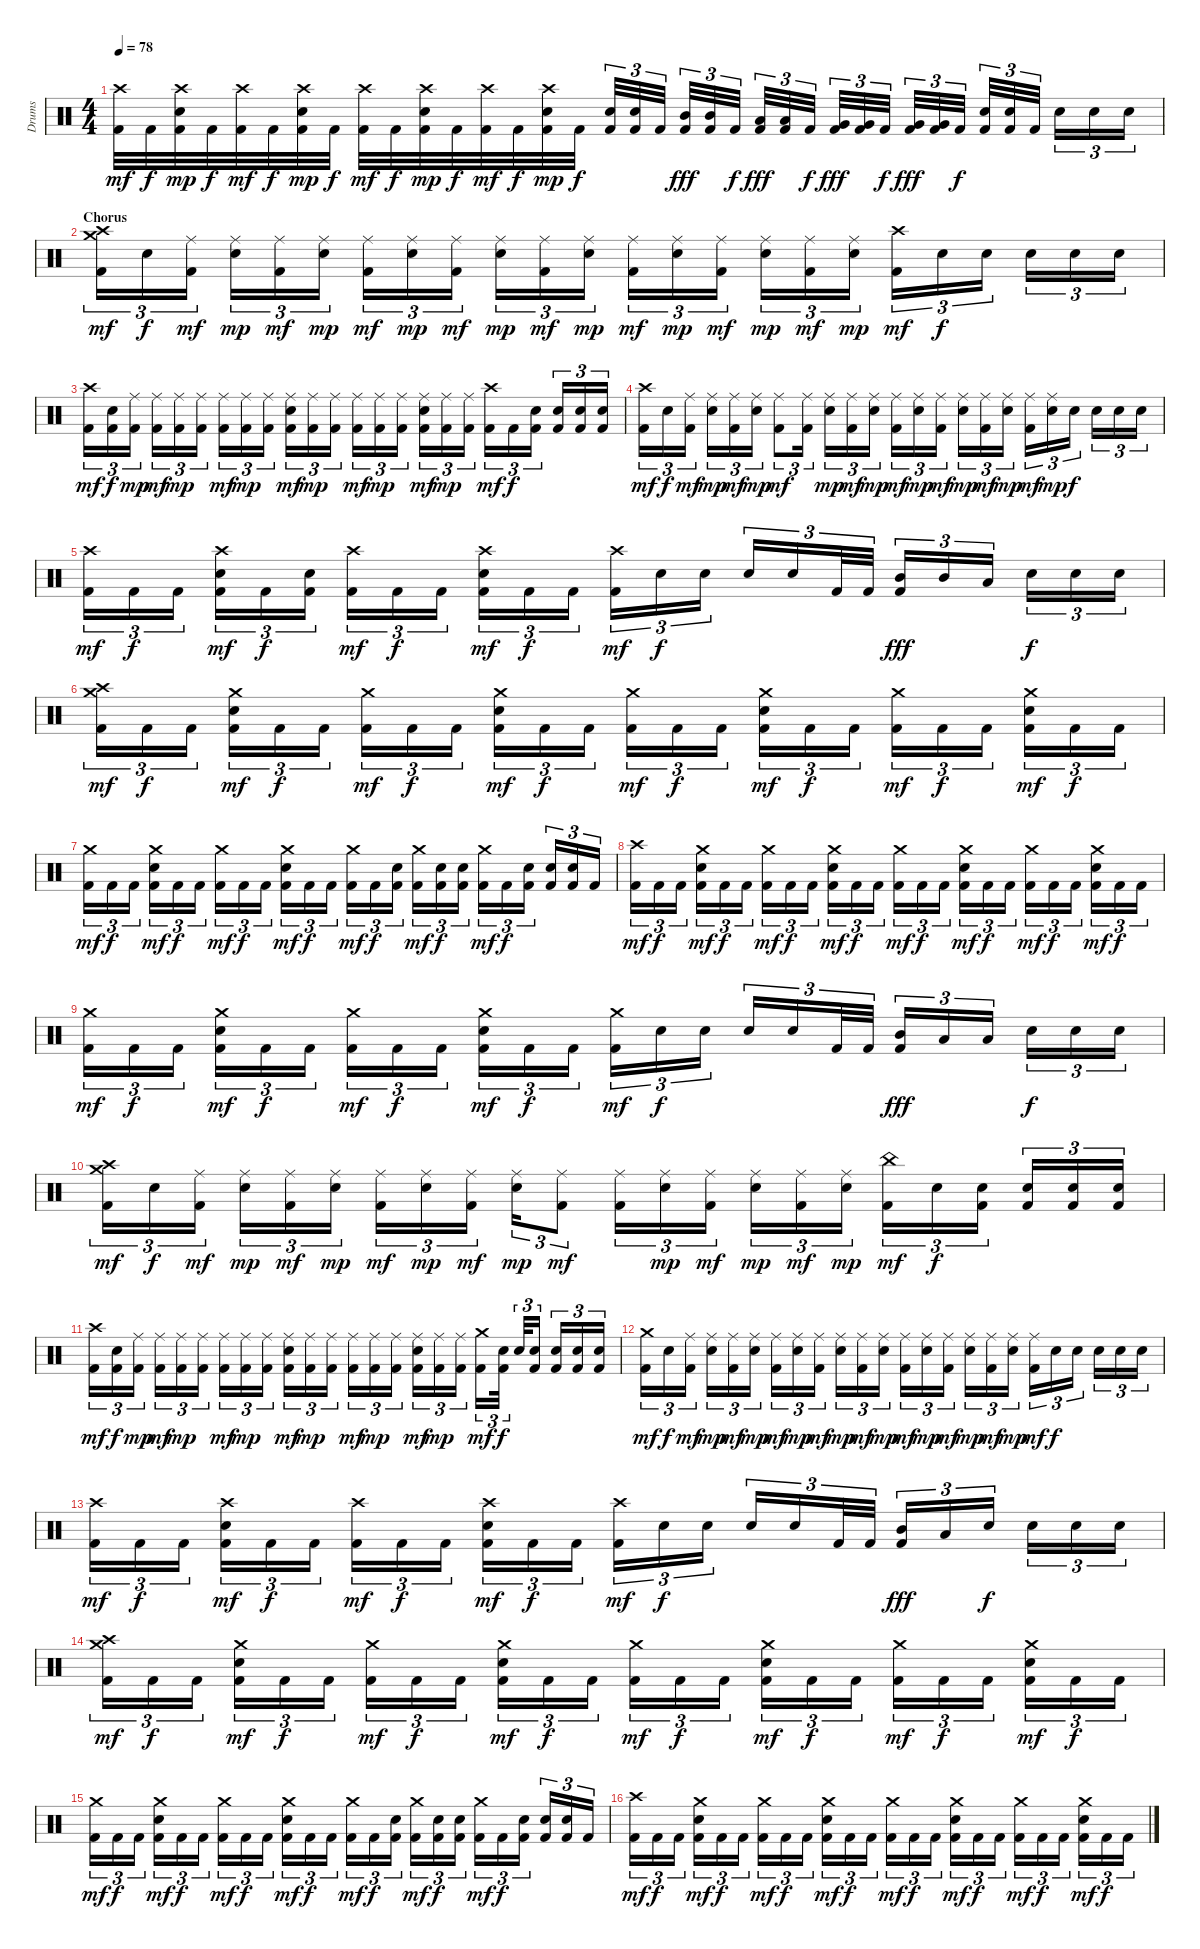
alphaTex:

\track ("Drums" "Drums") {instrument percussion}
\staff {score}
\articulation defaults
\ts (4 4)
\tempo 78
\clef neutral
\ks c
("Crash high (hit)" "Kick (hit) 2").32{dy mf} "Kick (hit) 2".32{dy f} ("Crash high (hit)" "Electric Snare (hit)" "Kick (hit) 2").32{dy mp} "Kick (hit) 2".32{dy f} ("Crash high (hit)" "Kick (hit) 2").32{dy mf} "Kick (hit) 2".32{dy f} ("Crash high (hit)" "Electric Snare (hit)" "Kick (hit) 2").32{dy mp} "Kick (hit) 2".32{dy f} ("Crash high (hit)" "Kick (hit) 2").32{dy mf} "Kick (hit) 2".32{dy f} ("Crash high (hit)" "Electric Snare (hit)" "Kick (hit) 2").32{dy mp} "Kick (hit) 2".32{dy f} ("Crash high (hit)" "Kick (hit) 2").32{dy mf} "Kick (hit) 2".32{dy f} ("Crash high (hit)" "Electric Snare (hit)" "Kick (hit) 2").32{dy mp} "Kick (hit) 2".32{dy f} ("Electric Snare (hit)" "Kick (hit) 2").32{tu (3 2)} ("Electric Snare (hit)" "Kick (hit) 2").32{tu (3 2)} "Kick (hit) 2".32{tu (3 2)} ("Mid Tom (hit)" "Kick (hit) 2").32{tu (3 2) dy fff} ("Mid Tom (hit)" "Kick (hit) 2").32{tu (3 2)} "Kick (hit) 2".32{tu (3 2) dy f} ("Low Tom (hit)" "Kick (hit) 2").32{tu (3 2) dy fff} ("Low Tom (hit)" "Kick (hit) 2").32{tu (3 2)} "Kick (hit) 2".32{tu (3 2) dy f} ("Very Low Tom (hit)" "Kick (hit) 2").32{tu (3 2) dy fff} ("Very Low Tom (hit)" "Kick (hit) 2").32{tu (3 2)} "Kick (hit) 2".32{tu (3 2) dy f} ("Very Low Tom (hit)" "Kick (hit) 2").32{tu (3 2) dy fff} ("Very Low Tom (hit)" "Kick (hit) 2").32{tu (3 2)} "Kick (hit) 2".32{tu (3 2) dy f} ("Electric Snare (hit)" "Kick (hit) 2").32{tu (3 2)} ("Electric Snare (hit)" "Kick (hit) 2").32{tu (3 2)} "Kick (hit) 2".32{tu (3 2)} "Electric Snare (hit)".16{tu (3 2)} "Electric Snare (hit)".16{tu (3 2)} "Electric Snare (hit)".16{tu (3 2)} |
\section ("" "Chorus")
("Crash high (hit)" "Crash medium (hit)" "Kick (hit) 2").16{tu (3 2) dy mf} "Electric Snare (hit)".16{tu (3 2) dy f} ("Ride (middle)" "Kick (hit) 2").16{tu (3 2) dy mf} ("Ride (middle)" "Electric Snare (hit)").16{tu (3 2) dy mp} ("Ride (middle)" "Kick (hit) 2").16{tu (3 2) dy mf} ("Ride (middle)" "Electric Snare (hit)").16{tu (3 2) dy mp} ("Ride (middle)" "Kick (hit) 2").16{tu (3 2) dy mf} ("Ride (middle)" "Electric Snare (hit)").16{tu (3 2) dy mp} ("Ride (middle)" "Kick (hit) 2").16{tu (3 2) dy mf} ("Ride (middle)" "Electric Snare (hit)").16{tu (3 2) dy mp} ("Ride (middle)" "Kick (hit) 2").16{tu (3 2) dy mf} ("Ride (middle)" "Electric Snare (hit)").16{tu (3 2) dy mp} ("Ride (middle)" "Kick (hit) 2").16{tu (3 2) dy mf} ("Ride (middle)" "Electric Snare (hit)").16{tu (3 2) dy mp} ("Ride (middle)" "Kick (hit) 2").16{tu (3 2) dy mf} ("Ride (middle)" "Electric Snare (hit)").16{tu (3 2) dy mp} ("Ride (middle)" "Kick (hit) 2").16{tu (3 2) dy mf} ("Ride (middle)" "Electric Snare (hit)").16{tu (3 2) dy mp} ("Crash high (hit)" "Kick (hit) 2").16{tu (3 2) dy mf} "Electric Snare (hit)".16{tu (3 2) dy f} "Electric Snare (hit)".16{tu (3 2)} "Electric Snare (hit)".16{tu (3 2)} "Electric Snare (hit)".16{tu (3 2)} "Electric Snare (hit)".16{tu (3 2)} |
("Crash high (hit)" "Kick (hit) 2").16{tu (3 2) dy mf} ("Electric Snare (hit)" "Kick (hit) 2").16{tu (3 2) dy f} ("Ride (middle)" "Kick (hit) 2").16{tu (3 2) dy mp} ("Ride (middle)" "Kick (hit) 2").16{tu (3 2) dy mf} ("Ride (middle)" "Kick (hit) 2").16{tu (3 2) dy mp} ("Ride (middle)" "Kick (hit) 2").16{tu (3 2)} ("Ride (middle)" "Kick (hit) 2").16{tu (3 2) dy mf} ("Ride (middle)" "Kick (hit) 2").16{tu (3 2) dy mp} ("Ride (middle)" "Kick (hit) 2").16{tu (3 2)} ("Ride (middle)" "Electric Snare (hit)" "Kick (hit) 2").16{tu (3 2) dy mf} ("Ride (middle)" "Kick (hit) 2").16{tu (3 2) dy mp} ("Ride (middle)" "Kick (hit) 2").16{tu (3 2)} ("Ride (middle)" "Kick (hit) 2").16{tu (3 2) dy mf} ("Ride (middle)" "Kick (hit) 2").16{tu (3 2) dy mp} ("Ride (middle)" "Kick (hit) 2").16{tu (3 2)} ("Ride (middle)" "Electric Snare (hit)" "Kick (hit) 2").16{tu (3 2) dy mf} ("Ride (middle)" "Kick (hit) 2").16{tu (3 2) dy mp} ("Ride (middle)" "Kick (hit) 2").16{tu (3 2)} ("Crash high (hit)" "Kick (hit) 2").16{tu (3 2) dy mf} "Kick (hit) 2".16{tu (3 2) dy f} ("Electric Snare (hit)" "Kick (hit) 2").16{tu (3 2)} ("Electric Snare (hit)" "Kick (hit) 2").16{tu (3 2)} ("Electric Snare (hit)" "Kick (hit) 2").16{tu (3 2)} ("Electric Snare (hit)" "Kick (hit) 2").16{tu (3 2)} |
("Crash high (hit)" "Kick (hit) 2").16{tu (3 2) dy mf} "Electric Snare (hit)".16{tu (3 2) dy f} ("Ride (middle)" "Kick (hit) 2").16{tu (3 2) dy mf} ("Ride (middle)" "Electric Snare (hit)").16{tu (3 2) dy mp} ("Ride (middle)" "Kick (hit) 2").16{tu (3 2) dy mf} ("Ride (middle)" "Electric Snare (hit)").16{tu (3 2) dy mp} ("Ride (middle)" "Kick (hit) 2").8{tu (3 2) dy mf} ("Ride (middle)" "Kick (hit) 2").16{tu (3 2)} ("Ride (middle)" "Electric Snare (hit)").16{tu (3 2) dy mp} ("Ride (middle)" "Kick (hit) 2").16{tu (3 2) dy mf} ("Ride (middle)" "Electric Snare (hit)").16{tu (3 2) dy mp} ("Ride (middle)" "Kick (hit) 2").16{tu (3 2) dy mf} ("Ride (middle)" "Electric Snare (hit)").16{tu (3 2) dy mp} ("Ride (middle)" "Kick (hit) 2").16{tu (3 2) dy mf} ("Ride (middle)" "Electric Snare (hit)").16{tu (3 2) dy mp} ("Ride (middle)" "Kick (hit) 2").16{tu (3 2) dy mf} ("Ride (middle)" "Electric Snare (hit)").16{tu (3 2) dy mp} ("Ride (middle)" "Kick (hit) 2").16{tu (3 2) dy mf} ("Ride (middle)" "Electric Snare (hit)").16{tu (3 2) dy mp} "Electric Snare (hit)".16{tu (3 2) dy f} "Electric Snare (hit)".16{tu (3 2)} "Electric Snare (hit)".16{tu (3 2)} "Electric Snare (hit)".16{tu (3 2)} |
("Crash high (hit)" "Kick (hit) 2").16{tu (3 2) dy mf} "Kick (hit) 2".16{tu (3 2) dy f} "Kick (hit) 2".16{tu (3 2)} ("Crash high (hit)" "Electric Snare (hit)" "Kick (hit) 2").16{tu (3 2) dy mf} "Kick (hit) 2".16{tu (3 2) dy f} ("Electric Snare (hit)" "Kick (hit) 2").16{tu (3 2)} ("Crash high (hit)" "Kick (hit) 2").16{tu (3 2) dy mf} "Kick (hit) 2".16{tu (3 2) dy f} "Kick (hit) 2".16{tu (3 2)} ("Crash high (hit)" "Electric Snare (hit)" "Kick (hit) 2").16{tu (3 2) dy mf} "Kick (hit) 2".16{tu (3 2) dy f} "Kick (hit) 2".16{tu (3 2)} ("Crash high (hit)" "Kick (hit) 2").16{tu (3 2) dy mf} "Electric Snare (hit)".16{tu (3 2) dy f} "Electric Snare (hit)".16{tu (3 2)} "Electric Snare (hit)".16{tu (3 2)} "Electric Snare (hit)".16{tu (3 2)} "Kick (hit) 2".32{tu (3 2)} "Kick (hit) 2".32{tu (3 2)} ("Mid Tom (hit)" "Kick (hit) 2").16{tu (3 2) dy fff} "Mid Tom (hit)".16{tu (3 2)} "Low Tom (hit)".16{tu (3 2)} "Electric Snare (hit)".16{tu (3 2) dy f} "Electric Snare (hit)".16{tu (3 2)} "Electric Snare (hit)".16{tu (3 2)} |
("Crash medium (hit)" "Crash high (hit)" "Kick (hit) 2").16{tu (3 2) dy mf} "Kick (hit) 2".16{tu (3 2) dy f} "Kick (hit) 2".16{tu (3 2)} ("Crash medium (hit)" "Electric Snare (hit)" "Kick (hit) 2").16{tu (3 2) dy mf} "Kick (hit) 2".16{tu (3 2) dy f} "Kick (hit) 2".16{tu (3 2)} ("Crash medium (hit)" "Kick (hit) 2").16{tu (3 2) dy mf} "Kick (hit) 2".16{tu (3 2) dy f} "Kick (hit) 2".16{tu (3 2)} ("Crash medium (hit)" "Electric Snare (hit)" "Kick (hit) 2").16{tu (3 2) dy mf} "Kick (hit) 2".16{tu (3 2) dy f} "Kick (hit) 2".16{tu (3 2)} ("Crash medium (hit)" "Kick (hit) 2").16{tu (3 2) dy mf} "Kick (hit) 2".16{tu (3 2) dy f} "Kick (hit) 2".16{tu (3 2)} ("Crash medium (hit)" "Electric Snare (hit)" "Kick (hit) 2").16{tu (3 2) dy mf} "Kick (hit) 2".16{tu (3 2) dy f} "Kick (hit) 2".16{tu (3 2)} ("Crash medium (hit)" "Kick (hit) 2").16{tu (3 2) dy mf} "Kick (hit) 2".16{tu (3 2) dy f} "Kick (hit) 2".16{tu (3 2)} ("Crash medium (hit)" "Electric Snare (hit)" "Kick (hit) 2").16{tu (3 2) dy mf} "Kick (hit) 2".16{tu (3 2) dy f} "Kick (hit) 2".16{tu (3 2)} |
("Crash medium (hit)" "Kick (hit) 2").16{tu (3 2) dy mf} "Kick (hit) 2".16{tu (3 2) dy f} "Kick (hit) 2".16{tu (3 2)} ("Crash medium (hit)" "Electric Snare (hit)" "Kick (hit) 2").16{tu (3 2) dy mf} "Kick (hit) 2".16{tu (3 2) dy f} "Kick (hit) 2".16{tu (3 2)} ("Crash medium (hit)" "Kick (hit) 2").16{tu (3 2) dy mf} "Kick (hit) 2".16{tu (3 2) dy f} "Kick (hit) 2".16{tu (3 2)} ("Crash medium (hit)" "Electric Snare (hit)" "Kick (hit) 2").16{tu (3 2) dy mf} "Kick (hit) 2".16{tu (3 2) dy f} "Kick (hit) 2".16{tu (3 2)} ("Crash medium (hit)" "Kick (hit) 2").16{tu (3 2) dy mf} "Kick (hit) 2".16{tu (3 2) dy f} ("Electric Snare (hit)" "Kick (hit) 2").16{tu (3 2)} ("Crash medium (hit)" "Kick (hit) 2").16{tu (3 2) dy mf} ("Electric Snare (hit)" "Kick (hit) 2").16{tu (3 2) dy f} ("Electric Snare (hit)" "Kick (hit) 2").16{tu (3 2)} ("Crash medium (hit)" "Kick (hit) 2").16{tu (3 2) dy mf} "Kick (hit) 2".16{tu (3 2) dy f} ("Electric Snare (hit)" "Kick (hit) 2").16{tu (3 2)} ("Electric Snare (hit)" "Kick (hit) 2").16{tu (3 2)} ("Electric Snare (hit)" "Kick (hit) 2").16{tu (3 2)} "Kick (hit) 2".16{tu (3 2)} |
("Crash high (hit)" "Kick (hit) 2").16{tu (3 2) dy mf} "Kick (hit) 2".16{tu (3 2) dy f} "Kick (hit) 2".16{tu (3 2)} ("Crash medium (hit)" "Electric Snare (hit)" "Kick (hit) 2").16{tu (3 2) dy mf} "Kick (hit) 2".16{tu (3 2) dy f} "Kick (hit) 2".16{tu (3 2)} ("Crash medium (hit)" "Kick (hit) 2").16{tu (3 2) dy mf} "Kick (hit) 2".16{tu (3 2) dy f} "Kick (hit) 2".16{tu (3 2)} ("Crash medium (hit)" "Electric Snare (hit)" "Kick (hit) 2").16{tu (3 2) dy mf} "Kick (hit) 2".16{tu (3 2) dy f} "Kick (hit) 2".16{tu (3 2)} ("Crash medium (hit)" "Kick (hit) 2").16{tu (3 2) dy mf} "Kick (hit) 2".16{tu (3 2) dy f} "Kick (hit) 2".16{tu (3 2)} ("Crash medium (hit)" "Electric Snare (hit)" "Kick (hit) 2").16{tu (3 2) dy mf} "Kick (hit) 2".16{tu (3 2) dy f} "Kick (hit) 2".16{tu (3 2)} ("Crash medium (hit)" "Kick (hit) 2").16{tu (3 2) dy mf} "Kick (hit) 2".16{tu (3 2) dy f} "Kick (hit) 2".16{tu (3 2)} ("Crash medium (hit)" "Electric Snare (hit)" "Kick (hit) 2").16{tu (3 2) dy mf} "Kick (hit) 2".16{tu (3 2) dy f} "Kick (hit) 2".16{tu (3 2)} |
("Crash medium (hit)" "Kick (hit) 2").16{tu (3 2) dy mf} "Kick (hit) 2".16{tu (3 2) dy f} "Kick (hit) 2".16{tu (3 2)} ("Crash medium (hit)" "Electric Snare (hit)" "Kick (hit) 2").16{tu (3 2) dy mf} "Kick (hit) 2".16{tu (3 2) dy f} "Kick (hit) 2".16{tu (3 2)} ("Crash medium (hit)" "Kick (hit) 2").16{tu (3 2) dy mf} "Kick (hit) 2".16{tu (3 2) dy f} "Kick (hit) 2".16{tu (3 2)} ("Crash medium (hit)" "Electric Snare (hit)" "Kick (hit) 2").16{tu (3 2) dy mf} "Kick (hit) 2".16{tu (3 2) dy f} "Kick (hit) 2".16{tu (3 2)} ("Crash medium (hit)" "Kick (hit) 2").16{tu (3 2) dy mf} "Electric Snare (hit)".16{tu (3 2) dy f} "Electric Snare (hit)".16{tu (3 2)} "Electric Snare (hit)".16{tu (3 2)} "Electric Snare (hit)".16{tu (3 2)} "Kick (hit) 2".32{tu (3 2)} "Kick (hit) 2".32{tu (3 2)} ("Mid Tom (hit)" "Kick (hit) 2").16{tu (3 2) dy fff} "Low Tom (hit)".16{tu (3 2)} "Low Tom (hit)".16{tu (3 2)} "Electric Snare (hit)".16{tu (3 2) dy f} "Electric Snare (hit)".16{tu (3 2)} "Electric Snare (hit)".16{tu (3 2)} |
("Crash high (hit)" "Crash medium (hit)" "Kick (hit) 2").16{tu (3 2) dy mf} "Electric Snare (hit)".16{tu (3 2) dy f} ("Ride (middle)" "Kick (hit) 2").16{tu (3 2) dy mf} ("Ride (middle)" "Electric Snare (hit)").16{tu (3 2) dy mp} ("Ride (middle)" "Kick (hit) 2").16{tu (3 2) dy mf} ("Ride (middle)" "Electric Snare (hit)").16{tu (3 2) dy mp} ("Ride (middle)" "Kick (hit) 2").16{tu (3 2) dy mf} ("Ride (middle)" "Electric Snare (hit)").16{tu (3 2) dy mp} ("Ride (middle)" "Kick (hit) 2").16{tu (3 2) dy mf} ("Ride (middle)" "Electric Snare (hit)").16{tu (3 2) dy mp} ("Ride (middle)" "Kick (hit) 2").8{tu (3 2) dy mf} ("Ride (middle)" "Kick (hit) 2").16{tu (3 2)} ("Ride (middle)" "Electric Snare (hit)").16{tu (3 2) dy mp} ("Ride (middle)" "Kick (hit) 2").16{tu (3 2) dy mf} ("Ride (middle)" "Electric Snare (hit)").16{tu (3 2) dy mp} ("Ride (middle)" "Kick (hit) 2").16{tu (3 2) dy mf} ("Ride (middle)" "Electric Snare (hit)").16{tu (3 2) dy mp} ("China (hit)" "Kick (hit) 2").16{tu (3 2) dy mf} "Electric Snare (hit)".16{tu (3 2) dy f} ("Electric Snare (hit)" "Kick (hit) 2").16{tu (3 2)} ("Electric Snare (hit)" "Kick (hit) 2").16{tu (3 2)} ("Electric Snare (hit)" "Kick (hit) 2").16{tu (3 2)} ("Electric Snare (hit)" "Kick (hit) 2").16{tu (3 2)} |
("Crash high (hit)" "Kick (hit) 2").16{tu (3 2) dy mf} ("Electric Snare (hit)" "Kick (hit) 2").16{tu (3 2) dy f} ("Ride (middle)" "Kick (hit) 2").16{tu (3 2) dy mp} ("Ride (middle)" "Kick (hit) 2").16{tu (3 2) dy mf} ("Ride (middle)" "Kick (hit) 2").16{tu (3 2) dy mp} ("Ride (middle)" "Kick (hit) 2").16{tu (3 2)} ("Ride (middle)" "Kick (hit) 2").16{tu (3 2) dy mf} ("Ride (middle)" "Kick (hit) 2").16{tu (3 2) dy mp} ("Ride (middle)" "Kick (hit) 2").16{tu (3 2)} ("Ride (middle)" "Electric Snare (hit)" "Kick (hit) 2").16{tu (3 2) dy mf} ("Ride (middle)" "Kick (hit) 2").16{tu (3 2) dy mp} ("Ride (middle)" "Kick (hit) 2").16{tu (3 2)} ("Ride (middle)" "Kick (hit) 2").16{tu (3 2) dy mf} ("Ride (middle)" "Kick (hit) 2").16{tu (3 2) dy mp} ("Ride (middle)" "Kick (hit) 2").16{tu (3 2)} ("Ride (middle)" "Electric Snare (hit)" "Kick (hit) 2").16{tu (3 2) dy mf} ("Ride (middle)" "Kick (hit) 2").16{tu (3 2) dy mp} ("Ride (middle)" "Kick (hit) 2").16{tu (3 2)} ("Crash medium (hit)" "Kick (hit) 2").16{tu (3 2) dy mf} ("Electric Snare (hit)" "Kick (hit) 2").32{tu (3 2) dy f} "Electric Snare (hit)".32{tu (3 2)} ("Electric Snare (hit)" "Kick (hit) 2").16{tu (3 2)} ("Electric Snare (hit)" "Kick (hit) 2").16{tu (3 2)} ("Electric Snare (hit)" "Kick (hit) 2").16{tu (3 2)} ("Electric Snare (hit)" "Kick (hit) 2").16{tu (3 2)} |
("Crash medium (hit)" "Kick (hit) 2").16{tu (3 2) dy mf} "Electric Snare (hit)".16{tu (3 2) dy f} ("Ride (middle)" "Kick (hit) 2").16{tu (3 2) dy mf} ("Ride (middle)" "Electric Snare (hit)").16{tu (3 2) dy mp} ("Ride (middle)" "Kick (hit) 2").16{tu (3 2) dy mf} ("Ride (middle)" "Electric Snare (hit)").16{tu (3 2) dy mp} ("Ride (middle)" "Kick (hit) 2").16{tu (3 2) dy mf} ("Ride (middle)" "Electric Snare (hit)").16{tu (3 2) dy mp} ("Ride (middle)" "Kick (hit) 2").16{tu (3 2) dy mf} ("Ride (middle)" "Electric Snare (hit)").16{tu (3 2) dy mp} ("Ride (middle)" "Kick (hit) 2").16{tu (3 2) dy mf} ("Ride (middle)" "Electric Snare (hit)").16{tu (3 2) dy mp} ("Ride (middle)" "Kick (hit) 2").16{tu (3 2) dy mf} ("Ride (middle)" "Electric Snare (hit)").16{tu (3 2) dy mp} ("Ride (middle)" "Kick (hit) 2").16{tu (3 2) dy mf} ("Ride (middle)" "Electric Snare (hit)").16{tu (3 2) dy mp} ("Ride (middle)" "Kick (hit) 2").16{tu (3 2) dy mf} ("Ride (middle)" "Electric Snare (hit)").16{tu (3 2) dy mp} ("Ride (middle)" "Kick (hit) 2").16{tu (3 2) dy mf} "Electric Snare (hit)".16{tu (3 2) dy f} "Electric Snare (hit)".16{tu (3 2)} "Electric Snare (hit)".16{tu (3 2)} "Electric Snare (hit)".16{tu (3 2)} "Electric Snare (hit)".16{tu (3 2)} |
("Crash high (hit)" "Kick (hit) 2").16{tu (3 2) dy mf} "Kick (hit) 2".16{tu (3 2) dy f} "Kick (hit) 2".16{tu (3 2)} ("Crash high (hit)" "Electric Snare (hit)" "Kick (hit) 2").16{tu (3 2) dy mf} "Kick (hit) 2".16{tu (3 2) dy f} "Kick (hit) 2".16{tu (3 2)} ("Crash high (hit)" "Kick (hit) 2").16{tu (3 2) dy mf} "Kick (hit) 2".16{tu (3 2) dy f} "Kick (hit) 2".16{tu (3 2)} ("Crash high (hit)" "Electric Snare (hit)" "Kick (hit) 2").16{tu (3 2) dy mf} "Kick (hit) 2".16{tu (3 2) dy f} "Kick (hit) 2".16{tu (3 2)} ("Crash high (hit)" "Kick (hit) 2").16{tu (3 2) dy mf} "Electric Snare (hit)".16{tu (3 2) dy f} "Electric Snare (hit)".16{tu (3 2)} "Electric Snare (hit)".16{tu (3 2)} "Electric Snare (hit)".16{tu (3 2)} "Kick (hit) 2".32{tu (3 2)} "Kick (hit) 2".32{tu (3 2)} ("Mid Tom (hit)" "Kick (hit) 2").16{tu (3 2) dy fff} "Low Tom (hit)".16{tu (3 2)} "Electric Snare (hit)".16{tu (3 2) dy f} "Electric Snare (hit)".16{tu (3 2)} "Electric Snare (hit)".16{tu (3 2)} "Electric Snare (hit)".16{tu (3 2)} |
("Crash medium (hit)" "Crash high (hit)" "Kick (hit) 2").16{tu (3 2) dy mf} "Kick (hit) 2".16{tu (3 2) dy f} "Kick (hit) 2".16{tu (3 2)} ("Crash medium (hit)" "Electric Snare (hit)" "Kick (hit) 2").16{tu (3 2) dy mf} "Kick (hit) 2".16{tu (3 2) dy f} "Kick (hit) 2".16{tu (3 2)} ("Crash medium (hit)" "Kick (hit) 2").16{tu (3 2) dy mf} "Kick (hit) 2".16{tu (3 2) dy f} "Kick (hit) 2".16{tu (3 2)} ("Crash medium (hit)" "Electric Snare (hit)" "Kick (hit) 2").16{tu (3 2) dy mf} "Kick (hit) 2".16{tu (3 2) dy f} "Kick (hit) 2".16{tu (3 2)} ("Crash medium (hit)" "Kick (hit) 2").16{tu (3 2) dy mf} "Kick (hit) 2".16{tu (3 2) dy f} "Kick (hit) 2".16{tu (3 2)} ("Crash medium (hit)" "Electric Snare (hit)" "Kick (hit) 2").16{tu (3 2) dy mf} "Kick (hit) 2".16{tu (3 2) dy f} "Kick (hit) 2".16{tu (3 2)} ("Crash medium (hit)" "Kick (hit) 2").16{tu (3 2) dy mf} "Kick (hit) 2".16{tu (3 2) dy f} "Kick (hit) 2".16{tu (3 2)} ("Crash medium (hit)" "Electric Snare (hit)" "Kick (hit) 2").16{tu (3 2) dy mf} "Kick (hit) 2".16{tu (3 2) dy f} "Kick (hit) 2".16{tu (3 2)} |
("Crash medium (hit)" "Kick (hit) 2").16{tu (3 2) dy mf} "Kick (hit) 2".16{tu (3 2) dy f} "Kick (hit) 2".16{tu (3 2)} ("Crash medium (hit)" "Electric Snare (hit)" "Kick (hit) 2").16{tu (3 2) dy mf} "Kick (hit) 2".16{tu (3 2) dy f} "Kick (hit) 2".16{tu (3 2)} ("Crash medium (hit)" "Kick (hit) 2").16{tu (3 2) dy mf} "Kick (hit) 2".16{tu (3 2) dy f} "Kick (hit) 2".16{tu (3 2)} ("Crash medium (hit)" "Electric Snare (hit)" "Kick (hit) 2").16{tu (3 2) dy mf} "Kick (hit) 2".16{tu (3 2) dy f} "Kick (hit) 2".16{tu (3 2)} ("Crash medium (hit)" "Kick (hit) 2").16{tu (3 2) dy mf} "Kick (hit) 2".16{tu (3 2) dy f} ("Electric Snare (hit)" "Kick (hit) 2").16{tu (3 2)} ("Crash medium (hit)" "Kick (hit) 2").16{tu (3 2) dy mf} ("Electric Snare (hit)" "Kick (hit) 2").16{tu (3 2) dy f} ("Electric Snare (hit)" "Kick (hit) 2").16{tu (3 2)} ("Crash medium (hit)" "Kick (hit) 2").16{tu (3 2) dy mf} "Kick (hit) 2".16{tu (3 2) dy f} ("Electric Snare (hit)" "Kick (hit) 2").16{tu (3 2)} ("Electric Snare (hit)" "Kick (hit) 2").16{tu (3 2)} ("Electric Snare (hit)" "Kick (hit) 2").16{tu (3 2)} "Kick (hit) 2".16{tu (3 2)} |
("Crash high (hit)" "Kick (hit) 2").16{tu (3 2) dy mf} "Kick (hit) 2".16{tu (3 2) dy f} "Kick (hit) 2".16{tu (3 2)} ("Crash medium (hit)" "Electric Snare (hit)" "Kick (hit) 2").16{tu (3 2) dy mf} "Kick (hit) 2".16{tu (3 2) dy f} "Kick (hit) 2".16{tu (3 2)} ("Crash medium (hit)" "Kick (hit) 2").16{tu (3 2) dy mf} "Kick (hit) 2".16{tu (3 2) dy f} "Kick (hit) 2".16{tu (3 2)} ("Crash medium (hit)" "Electric Snare (hit)" "Kick (hit) 2").16{tu (3 2) dy mf} "Kick (hit) 2".16{tu (3 2) dy f} "Kick (hit) 2".16{tu (3 2)} ("Crash medium (hit)" "Kick (hit) 2").16{tu (3 2) dy mf} "Kick (hit) 2".16{tu (3 2) dy f} "Kick (hit) 2".16{tu (3 2)} ("Crash medium (hit)" "Electric Snare (hit)" "Kick (hit) 2").16{tu (3 2) dy mf} "Kick (hit) 2".16{tu (3 2) dy f} "Kick (hit) 2".16{tu (3 2)} ("Crash medium (hit)" "Kick (hit) 2").16{tu (3 2) dy mf} "Kick (hit) 2".16{tu (3 2) dy f} "Kick (hit) 2".16{tu (3 2)} ("Crash medium (hit)" "Electric Snare (hit)" "Kick (hit) 2").16{tu (3 2) dy mf} "Kick (hit) 2".16{tu (3 2) dy f} "Kick (hit) 2".16{tu (3 2)}
